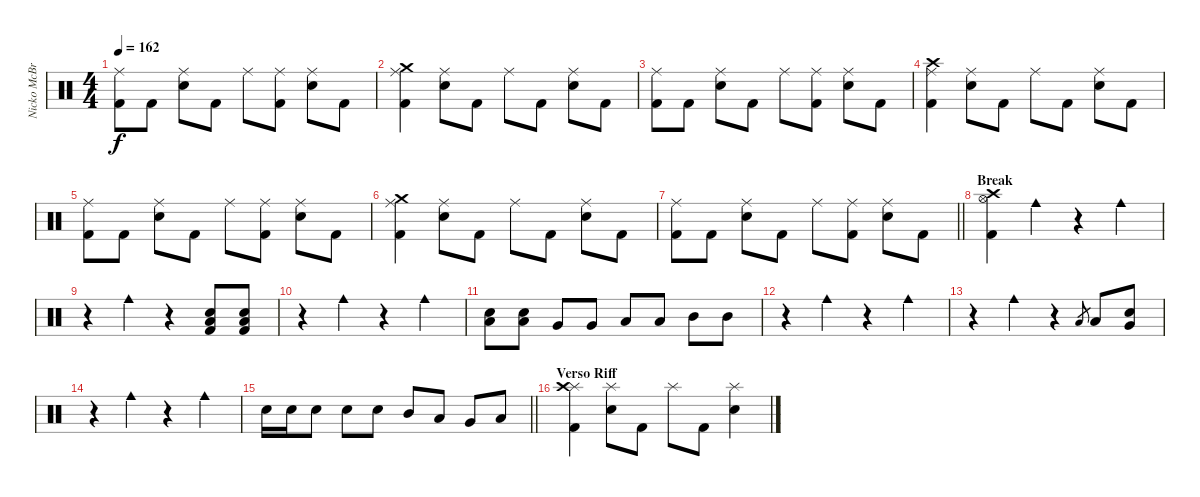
\track ("Nicko McBrain" "Nicko McBr") {instrument percussion}
\staff {score}
\articulation defaults
\ts (4 4)
\tempo 162
\clef neutral
\ks c
("Kick (hit) 2" "Ride (middle)").8{dy f} "Kick (hit) 2".8 ("Electric Snare (hit)" "Ride (middle)").8 "Kick (hit) 2".8 "Ride (middle)".8 ("Kick (hit) 2" "Ride (middle)").8 ("Electric Snare (hit)" "Ride (middle)").8 "Kick (hit) 2".8 |
("Kick (hit) 2" "Ride (middle)" "Crash medium (hit)").4 ("Electric Snare (hit)" "Ride (middle)").8 "Kick (hit) 2".8 "Ride (middle)".8 "Kick (hit) 2".8 ("Electric Snare (hit)" "Ride (middle)").8 "Kick (hit) 2".8 |
("Kick (hit) 2" "Ride (middle)").8 "Kick (hit) 2".8 ("Electric Snare (hit)" "Ride (middle)").8 "Kick (hit) 2".8 "Ride (middle)".8 ("Kick (hit) 2" "Ride (middle)").8 ("Electric Snare (hit)" "Ride (middle)").8 "Kick (hit) 2".8 |
("Kick (hit) 2" "Ride (middle)" "Crash high (hit)").4 ("Electric Snare (hit)" "Ride (middle)").8 "Kick (hit) 2".8 "Ride (middle)".8 "Kick (hit) 2".8 ("Electric Snare (hit)" "Ride (middle)").8 "Kick (hit) 2".8 |
("Kick (hit) 2" "Ride (middle)").8 "Kick (hit) 2".8 ("Electric Snare (hit)" "Ride (middle)").8 "Kick (hit) 2".8 "Ride (middle)".8 ("Kick (hit) 2" "Ride (middle)").8 ("Electric Snare (hit)" "Ride (middle)").8 "Kick (hit) 2".8 |
("Kick (hit) 2" "Ride (middle)" "Crash medium (hit)").4 ("Electric Snare (hit)" "Ride (middle)").8 "Kick (hit) 2".8 "Ride (middle)".8 "Kick (hit) 2".8 ("Electric Snare (hit)" "Ride (middle)").8 "Kick (hit) 2".8 |
\barLineRight lightlight
("Kick (hit) 2" "Ride (middle)").8 "Kick (hit) 2".8 ("Electric Snare (hit)" "Ride (middle)").8 "Kick (hit) 2".8 "Ride (middle)".8 ("Kick (hit) 2" "Ride (middle)").8 ("Electric Snare (hit)" "Ride (middle)").8 "Kick (hit) 2".8 |
\section ("" "Break")
("Kick (hit) 2" "Hi-Hat (open)" "Crash high (hit)").4 "Cowbell medium (hit)".4 r.4 "Cowbell medium (hit)".4 |
r.4 "Cowbell medium (hit)".4 r.4 ("Snare (hit) 2" "Low Floor Tom (hit)" "Kick (hit) 2").8 ("Snare (hit) 2" "Low Floor Tom (hit)" "Kick (hit) 2").8 |
r.4 "Cowbell medium (hit)".4 r.4 "Cowbell medium (hit)".4 |
("Electric Snare (hit)" "Low Floor Tom (hit)").8 ("Electric Snare (hit)" "Low Floor Tom (hit)").8 "Very Low Tom (hit)".8 "Very Low Tom (hit)".8 "Low Tom (hit)".8 "Low Tom (hit)".8 "Mid Tom (hit)".8 "Mid Tom (hit)".8 |
r.4 "Cowbell medium (hit)".4 r.4 "Cowbell medium (hit)".4 |
r.4 "Cowbell medium (hit)".4 r.4 "Low Tom (hit)".8{gr} "Low Tom (hit)".8 ("Very Low Tom (hit)" "Electric Snare (hit)").8 |
r.4 "Cowbell medium (hit)".4 r.4 "Cowbell medium (hit)".4 |
\barLineRight lightlight "Electric Snare (hit)".16 "Electric Snare (hit)".16 "Electric Snare (hit)".8 "Electric Snare (hit)".8 "Electric Snare (hit)".8 "Mid Tom (hit)".8 "Low Tom (hit)".8 "Very Low Tom (hit)".8 "Low Floor Tom (hit)".8
|
\section ("" "Verso Riff")
("Kick (hit) 2" "Splash (hit)" "Crash high (hit)").4 ("Electric Snare (hit)" "Splash (hit)").8 "Kick (hit) 2".8 "Splash (hit)".8 "Kick (hit) 2".8 ("Electric Snare (hit)" "Splash (hit)").4
